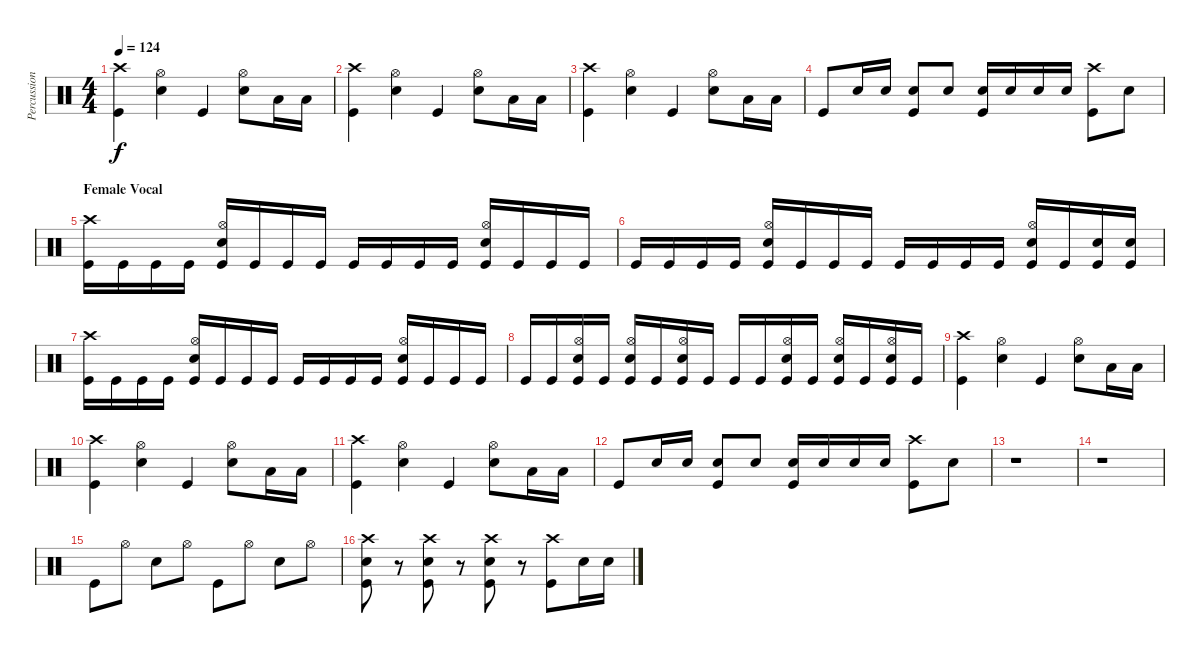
\track ("Percussion" "Percussion") {instrument percussion}
\staff {score}
\articulation defaults
\ts (4 4)
\tempo 124
\clef neutral
\ks c
("Crash high (hit)" "Kick (hit)").4{dy f} ("Hi-Hat (open)" "Snare (hit) 2").4 "Kick (hit)".4 ("Hi-Hat (open)" "Snare (hit) 2").8 "Low Tom (hit)".16 "Low Tom (hit)".16 |
("Crash high (hit)" "Kick (hit)").4 ("Hi-Hat (open)" "Snare (hit) 2").4 "Kick (hit)".4 ("Hi-Hat (open)" "Snare (hit) 2").8 "Low Tom (hit)".16 "Low Tom (hit)".16 |
("Crash high (hit)" "Kick (hit)").4 ("Hi-Hat (open)" "Snare (hit) 2").4 "Kick (hit)".4 ("Hi-Hat (open)" "Snare (hit) 2").8 "Low Tom (hit)".16 "Low Tom (hit)".16 |
"Kick (hit)".8 "Snare (hit) 2".16 "Snare (hit) 2".16 ("Snare (hit) 2" "Kick (hit)").8 "Snare (hit) 2".8 ("Snare (hit) 2" "Kick (hit)").16 "Snare (hit) 2".16 "Snare (hit) 2".16 "Snare (hit) 2".16 ("Crash high (hit)" "Kick (hit)").8 "Snare (hit) 2".8 |
\section ("" "Female Vocal")
("Crash high (hit)" "Kick (hit)").16 "Kick (hit)".16 "Kick (hit)".16 "Kick (hit)".16 ("Hi-Hat (open)" "Snare (hit) 2" "Kick (hit)").16 "Kick (hit)".16 "Kick (hit)".16 "Kick (hit)".16 "Kick (hit)".16 "Kick (hit)".16 "Kick (hit)".16 "Kick (hit)".16 ("Hi-Hat (open)" "Snare (hit) 2" "Kick (hit)").16 "Kick (hit)".16 "Kick (hit)".16 "Kick (hit)".16 |
"Kick (hit)".16 "Kick (hit)".16 "Kick (hit)".16 "Kick (hit)".16 ("Hi-Hat (open)" "Snare (hit) 2" "Kick (hit)").16 "Kick (hit)".16 "Kick (hit)".16 "Kick (hit)".16 "Kick (hit)".16 "Kick (hit)".16 "Kick (hit)".16 "Kick (hit)".16 ("Hi-Hat (open)" "Snare (hit) 2" "Kick (hit)").16 "Kick (hit)".16 ("Snare (hit) 2" "Kick (hit)").16 ("Snare (hit) 2" "Kick (hit)").16 |
("Crash high (hit)" "Kick (hit)").16 "Kick (hit)".16 "Kick (hit)".16 "Kick (hit)".16 ("Hi-Hat (open)" "Snare (hit) 2" "Kick (hit)").16 "Kick (hit)".16 "Kick (hit)".16 "Kick (hit)".16 "Kick (hit)".16 "Kick (hit)".16 "Kick (hit)".16 "Kick (hit)".16 ("Hi-Hat (open)" "Snare (hit) 2" "Kick (hit)").16 "Kick (hit)".16 "Kick (hit)".16 "Kick (hit)".16 |
"Kick (hit)".16 "Kick (hit)".16 ("Hi-Hat (open)" "Snare (hit) 2" "Kick (hit)").16 "Kick (hit)".16 ("Hi-Hat (open)" "Snare (hit) 2" "Kick (hit)").16 "Kick (hit)".16 ("Hi-Hat (open)" "Snare (hit) 2" "Kick (hit)").16 "Kick (hit)".16 "Kick (hit)".16 "Kick (hit)".16 ("Hi-Hat (open)" "Snare (hit) 2" "Kick (hit)").16 "Kick (hit)".16 ("Hi-Hat (open)" "Snare (hit) 2" "Kick (hit)").16 "Kick (hit)".16 ("Hi-Hat (open)" "Snare (hit) 2" "Kick (hit)").16 "Kick (hit)".16 |
("Crash high (hit)" "Kick (hit)").4 ("Hi-Hat (open)" "Snare (hit) 2").4 "Kick (hit)".4 ("Hi-Hat (open)" "Snare (hit) 2").8 "Low Tom (hit)".16 "Low Tom (hit)".16 |
("Crash high (hit)" "Kick (hit)").4 ("Hi-Hat (open)" "Snare (hit) 2").4 "Kick (hit)".4 ("Hi-Hat (open)" "Snare (hit) 2").8 "Low Tom (hit)".16 "Low Tom (hit)".16 |
("Crash high (hit)" "Kick (hit)").4 ("Hi-Hat (open)" "Snare (hit) 2").4 "Kick (hit)".4 ("Hi-Hat (open)" "Snare (hit) 2").8 "Low Tom (hit)".16 "Low Tom (hit)".16 |
"Kick (hit)".8 "Snare (hit) 2".16 "Snare (hit) 2".16 ("Snare (hit) 2" "Kick (hit)").8 "Snare (hit) 2".8 ("Snare (hit) 2" "Kick (hit)").16 "Snare (hit) 2".16 "Snare (hit) 2".16 "Snare (hit) 2".16 ("Crash high (hit)" "Kick (hit)").8 "Snare (hit) 2".8 |
r.1 |
r.1 |
"Kick (hit)".8 "Hi-Hat (open)".8 "Snare (hit) 2".8 "Hi-Hat (open)".8 "Kick (hit)".8 "Hi-Hat (open)".8 "Snare (hit) 2".8 "Hi-Hat (open)".8 |
("Crash high (hit)" "Snare (hit) 2" "Kick (hit)").8 r.8 ("Crash high (hit)" "Snare (hit) 2" "Kick (hit)").8 r.8 ("Crash high (hit)" "Snare (hit) 2" "Kick (hit)").8 r.8 ("Crash high (hit)" "Kick (hit)").8 "Snare (hit) 2".16 "Snare (hit) 2".16
